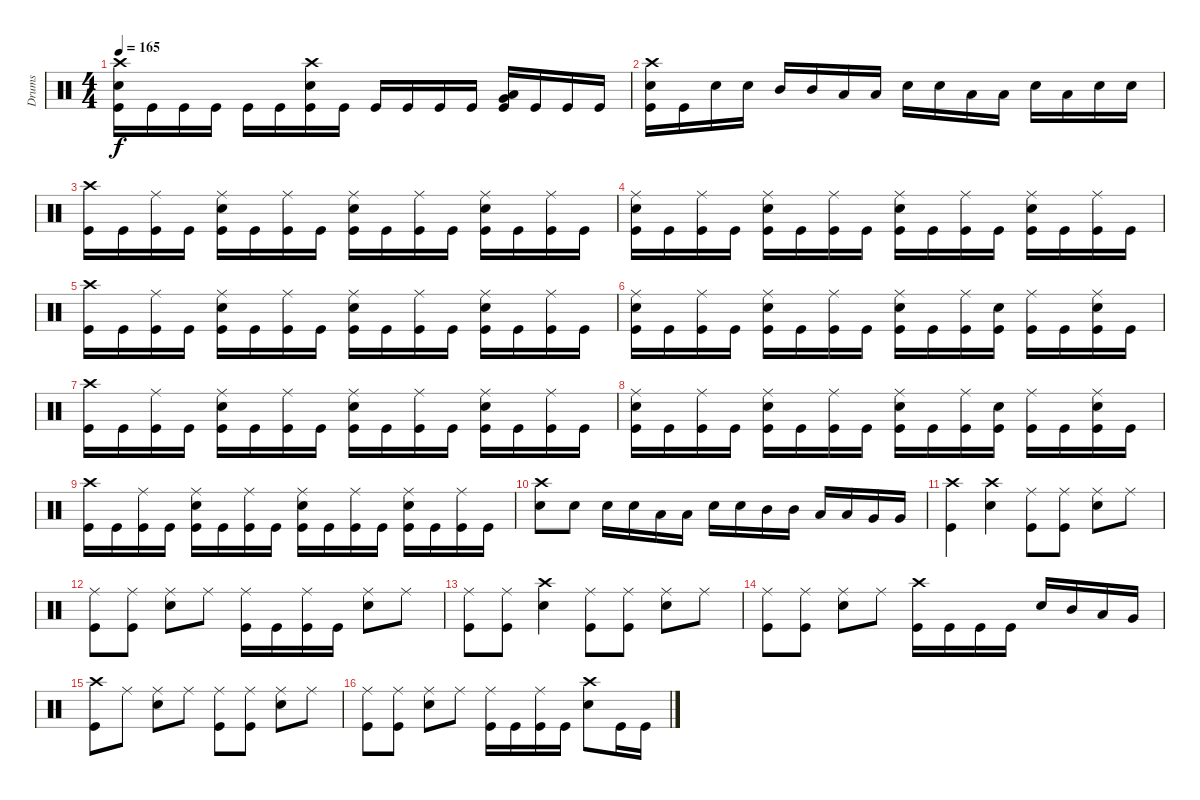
\track ("Drums" "Drums") {instrument percussion}
\staff {score}
\articulation defaults
\ts (4 4)
\tempo 165
\clef neutral
\ks c
("Crash high (hit)" "Electric Snare (hit)" "Kick (hit)").16{dy f} "Kick (hit)".16 "Kick (hit)".16 "Kick (hit)".16 "Kick (hit)".16 "Kick (hit)".16 ("Crash high (hit)" "Electric Snare (hit)" "Kick (hit)").16 "Kick (hit)".16 "Kick (hit)".16 "Kick (hit)".16 "Kick (hit)".16 "Kick (hit)".16 ("Low Tom (hit)" "Very Low Tom (hit)" "Kick (hit)").16 "Kick (hit)".16 "Kick (hit)".16 "Kick (hit)".16 |
("Crash high (hit)" "Electric Snare (hit)" "Kick (hit)").16 "Kick (hit)".16 "Electric Snare (hit)".16 "Electric Snare (hit)".16 "Mid Tom (hit)".16 "Mid Tom (hit)".16 "Low Tom (hit)".16 "Low Tom (hit)".16 "Electric Snare (hit)".16 "Electric Snare (hit)".16 "Low Tom (hit)".16 "Low Tom (hit)".16 "Electric Snare (hit)".16 "Low Tom (hit)".16 "Electric Snare (hit)".16 "Electric Snare (hit)".16 |
("Crash high (hit)" "Kick (hit)").16 "Kick (hit)".16 ("Ride (middle)" "Kick (hit)").16 "Kick (hit)".16 ("Ride (middle)" "Electric Snare (hit)" "Kick (hit)").16 "Kick (hit)".16 ("Ride (middle)" "Kick (hit)").16 "Kick (hit)".16 ("Ride (middle)" "Electric Snare (hit)" "Kick (hit)").16 "Kick (hit)".16 ("Ride (middle)" "Kick (hit)").16 "Kick (hit)".16 ("Ride (middle)" "Electric Snare (hit)" "Kick (hit)").16 "Kick (hit)".16 ("Ride (middle)" "Kick (hit)").16 "Kick (hit)".16 |
("Ride (middle)" "Electric Snare (hit)" "Kick (hit)").16 "Kick (hit)".16 ("Ride (middle)" "Kick (hit)").16 "Kick (hit)".16 ("Ride (middle)" "Electric Snare (hit)" "Kick (hit)").16 "Kick (hit)".16 ("Ride (middle)" "Kick (hit)").16 "Kick (hit)".16 ("Ride (middle)" "Electric Snare (hit)" "Kick (hit)").16 "Kick (hit)".16 ("Ride (middle)" "Kick (hit)").16 "Kick (hit)".16 ("Ride (middle)" "Electric Snare (hit)" "Kick (hit)").16 "Kick (hit)".16 ("Ride (middle)" "Kick (hit)").16 "Kick (hit)".16 |
("Crash high (hit)" "Kick (hit)").16 "Kick (hit)".16 ("Ride (middle)" "Kick (hit)").16 "Kick (hit)".16 ("Ride (middle)" "Electric Snare (hit)" "Kick (hit)").16 "Kick (hit)".16 ("Ride (middle)" "Kick (hit)").16 "Kick (hit)".16 ("Ride (middle)" "Electric Snare (hit)" "Kick (hit)").16 "Kick (hit)".16 ("Ride (middle)" "Kick (hit)").16 "Kick (hit)".16 ("Ride (middle)" "Electric Snare (hit)" "Kick (hit)").16 "Kick (hit)".16 ("Ride (middle)" "Kick (hit)").16 "Kick (hit)".16 |
("Ride (middle)" "Electric Snare (hit)" "Kick (hit)").16 "Kick (hit)".16 ("Ride (middle)" "Kick (hit)").16 "Kick (hit)".16 ("Ride (middle)" "Electric Snare (hit)" "Kick (hit)").16 "Kick (hit)".16 ("Ride (middle)" "Kick (hit)").16 "Kick (hit)".16 ("Ride (middle)" "Electric Snare (hit)" "Kick (hit)").16 "Kick (hit)".16 ("Ride (middle)" "Kick (hit)").16 ("Electric Snare (hit)" "Kick (hit)").16 ("Ride (middle)" "Kick (hit)").16 "Kick (hit)".16 ("Ride (middle)" "Electric Snare (hit)" "Kick (hit)").16 "Kick (hit)".16 |
("Crash high (hit)" "Kick (hit)").16 "Kick (hit)".16 ("Ride (middle)" "Kick (hit)").16 "Kick (hit)".16 ("Ride (middle)" "Electric Snare (hit)" "Kick (hit)").16 "Kick (hit)".16 ("Ride (middle)" "Kick (hit)").16 "Kick (hit)".16 ("Ride (middle)" "Electric Snare (hit)" "Kick (hit)").16 "Kick (hit)".16 ("Ride (middle)" "Kick (hit)").16 "Kick (hit)".16 ("Ride (middle)" "Electric Snare (hit)" "Kick (hit)").16 "Kick (hit)".16 ("Ride (middle)" "Kick (hit)").16 "Kick (hit)".16 |
("Ride (middle)" "Electric Snare (hit)" "Kick (hit)").16 "Kick (hit)".16 ("Ride (middle)" "Kick (hit)").16 "Kick (hit)".16 ("Ride (middle)" "Electric Snare (hit)" "Kick (hit)").16 "Kick (hit)".16 ("Ride (middle)" "Kick (hit)").16 "Kick (hit)".16 ("Ride (middle)" "Electric Snare (hit)" "Kick (hit)").16 "Kick (hit)".16 ("Ride (middle)" "Kick (hit)").16 ("Electric Snare (hit)" "Kick (hit)").16 ("Ride (middle)" "Kick (hit)").16 "Kick (hit)".16 ("Ride (middle)" "Electric Snare (hit)" "Kick (hit)").16 "Kick (hit)".16 |
("Crash high (hit)" "Kick (hit)").16 "Kick (hit)".16 ("Ride (middle)" "Kick (hit)").16 "Kick (hit)".16 ("Ride (middle)" "Electric Snare (hit)" "Kick (hit)").16 "Kick (hit)".16 ("Ride (middle)" "Kick (hit)").16 "Kick (hit)".16 ("Ride (middle)" "Electric Snare (hit)" "Kick (hit)").16 "Kick (hit)".16 ("Ride (middle)" "Kick (hit)").16 "Kick (hit)".16 ("Ride (middle)" "Electric Snare (hit)" "Kick (hit)").16 "Kick (hit)".16 ("Ride (middle)" "Kick (hit)").16 "Kick (hit)".16 |
("Crash high (hit)" "Electric Snare (hit)").8 "Electric Snare (hit)".8 "Electric Snare (hit)".16 "Electric Snare (hit)".16 "Low Tom (hit)".16 "Low Tom (hit)".16 "Electric Snare (hit)".16 "Electric Snare (hit)".16 "Mid Tom (hit)".16 "Mid Tom (hit)".16 "Low Tom (hit)".16 "Low Tom (hit)".16 "Very Low Tom (hit)".16 "Very Low Tom (hit)".16 |
("Crash high (hit)" "Kick (hit)").4 ("Crash high (hit)" "Electric Snare (hit)").4 ("Ride (middle)" "Kick (hit)").8 ("Ride (middle)" "Kick (hit)").8 ("Ride (middle)" "Electric Snare (hit)").8 "Ride (middle)".8 |
("Ride (middle)" "Kick (hit)").8 ("Ride (middle)" "Kick (hit)").8 ("Ride (middle)" "Electric Snare (hit)").8 "Ride (middle)".8 ("Ride (middle)" "Kick (hit)").16 "Kick (hit)".16 ("Ride (middle)" "Kick (hit)").16 "Kick (hit)".16 ("Ride (middle)" "Electric Snare (hit)").8 "Ride (middle)".8 |
("Ride (middle)" "Kick (hit)").8 ("Ride (middle)" "Kick (hit)").8 ("Crash high (hit)" "Electric Snare (hit)").4 ("Ride (middle)" "Kick (hit)").8 ("Ride (middle)" "Kick (hit)").8 ("Ride (middle)" "Electric Snare (hit)").8 "Ride (middle)".8 |
("Ride (middle)" "Kick (hit)").8 ("Ride (middle)" "Kick (hit)").8 ("Ride (middle)" "Electric Snare (hit)").8 "Ride (middle)".8 ("Crash high (hit)" "Kick (hit)").16 "Kick (hit)".16 "Kick (hit)".16 "Kick (hit)".16 "Electric Snare (hit)".16 "Mid Tom (hit)".16 "Low Tom (hit)".16 "Very Low Tom (hit)".16 |
("Crash high (hit)" "Kick (hit)").8 "Ride (middle)".8 ("Ride (middle)" "Electric Snare (hit)").8 "Ride (middle)".8 ("Ride (middle)" "Kick (hit)").8 ("Ride (middle)" "Kick (hit)").8 ("Ride (middle)" "Electric Snare (hit)").8 "Ride (middle)".8 |
("Ride (middle)" "Kick (hit)").8 ("Ride (middle)" "Kick (hit)").8 ("Ride (middle)" "Electric Snare (hit)").8 "Ride (middle)".8 ("Ride (middle)" "Kick (hit)").16 "Kick (hit)".16 ("Ride (middle)" "Kick (hit)").16 "Kick (hit)".16 ("Crash high (hit)" "Electric Snare (hit)").8 "Kick (hit)".16 "Kick (hit)".16
